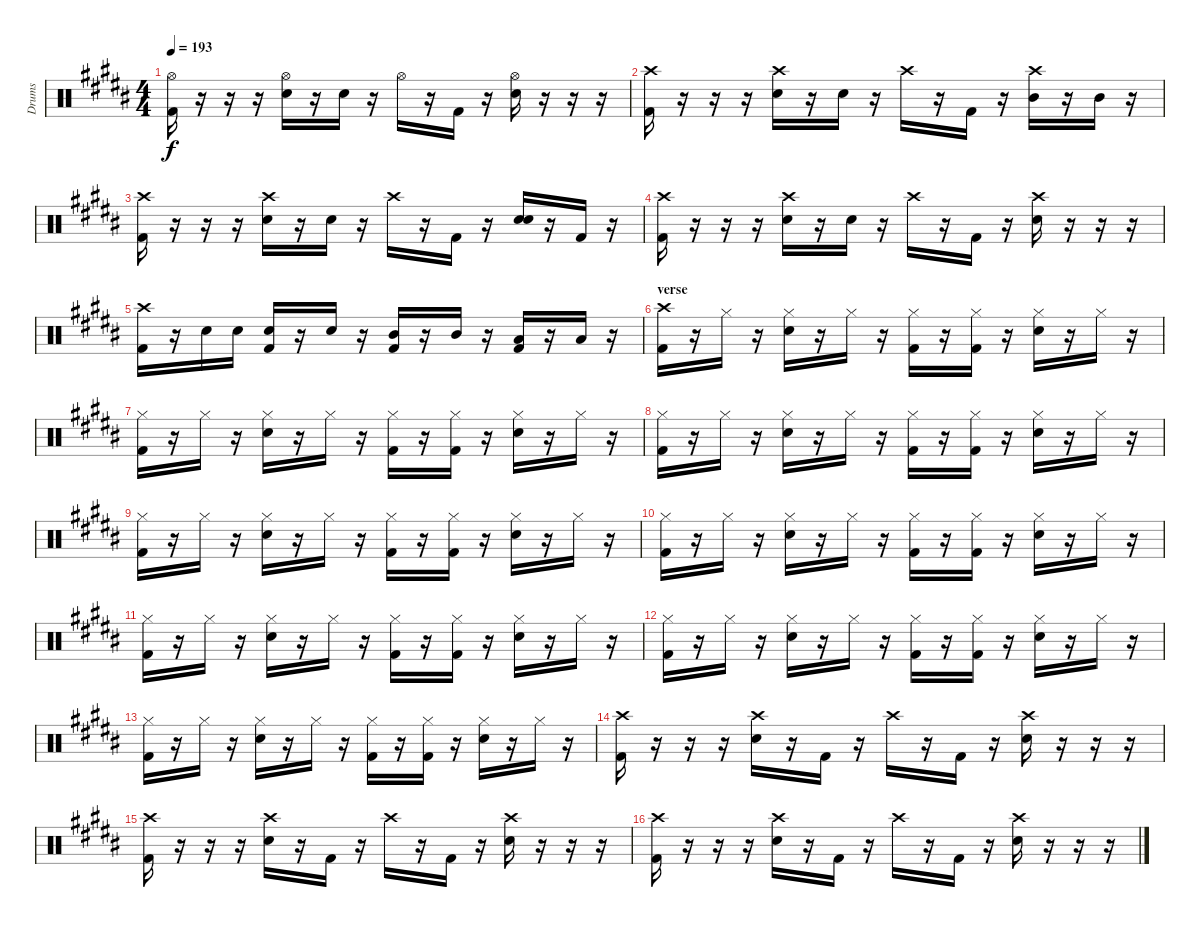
\track ("Drums" "Drums") {instrument percussion}
\staff {score}
\articulation defaults
\ts (4 4)
\tempo 193
\clef neutral
\ks b
("Hi-Hat (open)" "Kick (hit) 2").16{dy f} r.16 r.16 r.16 ("Electric Snare (hit)" "Hi-Hat (open)").16 r.16 "Electric Snare (hit)".16 r.16 "Hi-Hat (open)".16 r.16 "Kick (hit) 2".16 r.16 ("Electric Snare (hit)" "Hi-Hat (open)").16 r.16 r.16 r.16 |
("Crash high (hit)" "Kick (hit) 2").16 r.16 r.16 r.16 ("Electric Snare (hit)" "Crash high (hit)").16 r.16 "Electric Snare (hit)".16 r.16 "Crash high (hit)".16 r.16 "Kick (hit) 2".16 r.16 ("Mid Tom (hit)" "Crash high (hit)").16 r.16 "Mid Tom (hit)".16 r.16 |
("Crash high (hit)" "Kick (hit) 2").16 r.16 r.16 r.16 ("Electric Snare (hit)" "Crash high (hit)").16 r.16 "Electric Snare (hit)".16 r.16 "Crash high (hit)".16 r.16 "Kick (hit) 2".16 r.16 ("Electric Snare (hit)" "Electric Snare (hit)").16 r.16 "Kick (hit) 2".16 r.16 |
("Crash high (hit)" "Kick (hit) 2").16 r.16 r.16 r.16 ("Electric Snare (hit)" "Crash high (hit)").16 r.16 "Electric Snare (hit)".16 r.16 "Crash high (hit)".16 r.16 "Kick (hit) 2".16 r.16 ("Electric Snare (hit)" "Crash high (hit)").16 r.16 r.16 r.16 |
("Crash high (hit)" "Kick (hit) 2").16 r.16 "Electric Snare (hit)".16 "Electric Snare (hit)".16 ("Electric Snare (hit)" "Kick (hit) 2").16 r.16 "Electric Snare (hit)".16 r.16 ("Mid Tom (hit)" "Kick (hit) 2").16 r.16 "Mid Tom (hit)".16 r.16 ("Low Tom (hit)" "Kick (hit) 2").16 r.16 "Low Tom (hit)".16 r.16 |
\section ("" "verse")
("Crash high (hit)" "Kick (hit) 2").16 r.16 "Hi-Hat (closed)".16 r.16 ("Electric Snare (hit)" "Hi-Hat (closed)").16 r.16 "Hi-Hat (closed)".16 r.16 ("Hi-Hat (closed)" "Kick (hit) 2").16 r.16 ("Hi-Hat (closed)" "Kick (hit) 2").16 r.16 ("Electric Snare (hit)" "Hi-Hat (closed)").16 r.16 "Hi-Hat (closed)".16 r.16 |
("Hi-Hat (closed)" "Kick (hit) 2").16 r.16 "Hi-Hat (closed)".16 r.16 ("Electric Snare (hit)" "Hi-Hat (closed)").16 r.16 "Hi-Hat (closed)".16 r.16 ("Hi-Hat (closed)" "Kick (hit) 2").16 r.16 ("Hi-Hat (closed)" "Kick (hit) 2").16 r.16 ("Electric Snare (hit)" "Hi-Hat (closed)").16 r.16 "Hi-Hat (closed)".16 r.16 |
("Hi-Hat (closed)" "Kick (hit) 2").16 r.16 "Hi-Hat (closed)".16 r.16 ("Electric Snare (hit)" "Hi-Hat (closed)").16 r.16 "Hi-Hat (closed)".16 r.16 ("Hi-Hat (closed)" "Kick (hit) 2").16 r.16 ("Hi-Hat (closed)" "Kick (hit) 2").16 r.16 ("Electric Snare (hit)" "Hi-Hat (closed)").16 r.16 "Hi-Hat (closed)".16 r.16 |
("Hi-Hat (closed)" "Kick (hit) 2").16 r.16 "Hi-Hat (closed)".16 r.16 ("Electric Snare (hit)" "Hi-Hat (closed)").16 r.16 "Hi-Hat (closed)".16 r.16 ("Hi-Hat (closed)" "Kick (hit) 2").16 r.16 ("Hi-Hat (closed)" "Kick (hit) 2").16 r.16 ("Electric Snare (hit)" "Hi-Hat (closed)").16 r.16 "Hi-Hat (closed)".16 r.16 |
("Hi-Hat (closed)" "Kick (hit) 2").16 r.16 "Hi-Hat (closed)".16 r.16 ("Electric Snare (hit)" "Hi-Hat (closed)").16 r.16 "Hi-Hat (closed)".16 r.16 ("Hi-Hat (closed)" "Kick (hit) 2").16 r.16 ("Hi-Hat (closed)" "Kick (hit) 2").16 r.16 ("Electric Snare (hit)" "Hi-Hat (closed)").16 r.16 "Hi-Hat (closed)".16 r.16 |
("Hi-Hat (closed)" "Kick (hit) 2").16 r.16 "Hi-Hat (closed)".16 r.16 ("Electric Snare (hit)" "Hi-Hat (closed)").16 r.16 "Hi-Hat (closed)".16 r.16 ("Hi-Hat (closed)" "Kick (hit) 2").16 r.16 ("Hi-Hat (closed)" "Kick (hit) 2").16 r.16 ("Electric Snare (hit)" "Hi-Hat (closed)").16 r.16 "Hi-Hat (closed)".16 r.16 |
("Hi-Hat (closed)" "Kick (hit) 2").16 r.16 "Hi-Hat (closed)".16 r.16 ("Electric Snare (hit)" "Hi-Hat (closed)").16 r.16 "Hi-Hat (closed)".16 r.16 ("Hi-Hat (closed)" "Kick (hit) 2").16 r.16 ("Hi-Hat (closed)" "Kick (hit) 2").16 r.16 ("Electric Snare (hit)" "Hi-Hat (closed)").16 r.16 "Hi-Hat (closed)".16 r.16 |
("Hi-Hat (closed)" "Kick (hit) 2").16 r.16 "Hi-Hat (closed)".16 r.16 ("Electric Snare (hit)" "Hi-Hat (closed)").16 r.16 "Hi-Hat (closed)".16 r.16 ("Hi-Hat (closed)" "Kick (hit) 2").16 r.16 ("Hi-Hat (closed)" "Kick (hit) 2").16 r.16 ("Electric Snare (hit)" "Hi-Hat (closed)").16 r.16 "Hi-Hat (closed)".16 r.16 |
("Crash high (hit)" "Kick (hit) 2").16 r.16 r.16 r.16 ("Electric Snare (hit)" "Crash high (hit)").16 r.16 "Kick (hit) 2".16 r.16 "Crash high (hit)".16 r.16 "Kick (hit) 2".16 r.16 ("Electric Snare (hit)" "Crash high (hit)").16 r.16 r.16 r.16 |
("Crash high (hit)" "Kick (hit) 2").16 r.16 r.16 r.16 ("Electric Snare (hit)" "Crash high (hit)").16 r.16 "Kick (hit) 2".16 r.16 "Crash high (hit)".16 r.16 "Kick (hit) 2".16 r.16 ("Electric Snare (hit)" "Crash high (hit)").16 r.16 r.16 r.16 |
("Crash high (hit)" "Kick (hit) 2").16 r.16 r.16 r.16 ("Electric Snare (hit)" "Crash high (hit)").16 r.16 "Kick (hit) 2".16 r.16 "Crash high (hit)".16 r.16 "Kick (hit) 2".16 r.16 ("Electric Snare (hit)" "Crash high (hit)").16 r.16 r.16 r.16
